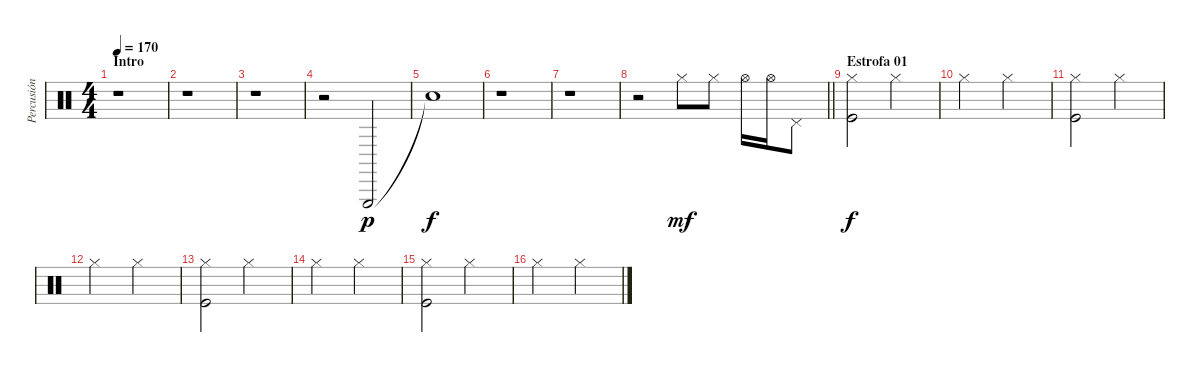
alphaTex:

\track ("Percusión" "Percusión") {instrument percussion}
\staff {score}
\articulation defaults
\ts (4 4)
\section ("" "Intro")
\tempo 170
\clef neutral
\ks c
r.1{dy p} |
r.1 |
r.1 |
r.2 "Triangle (hit)".2 |
"Snare (hit)"{t}.1{dy f} |
r.1 |
r.1 |
\barLineRight lightlight
r.2 "Hi-Hat (closed)".8{dy mf} "Hi-Hat (closed)".8 "Hi-Hat (open)".16 "Hi-Hat (open)".16 "Pedal Hi-Hat (hit)".8 |
\section ("" "Estrofa 01")
("Hi-Hat (closed)" "Kick (hit)").2{dy f} "Hi-Hat (closed)".2 |
"Hi-Hat (closed)".2 "Hi-Hat (closed)".2 |
("Hi-Hat (closed)" "Kick (hit)").2 "Hi-Hat (closed)".2 |
"Hi-Hat (closed)".2 "Hi-Hat (closed)".2 |
("Hi-Hat (closed)" "Kick (hit)").2 "Hi-Hat (closed)".2 |
"Hi-Hat (closed)".2 "Hi-Hat (closed)".2 |
("Hi-Hat (closed)" "Kick (hit)").2 "Hi-Hat (closed)".2 |
"Hi-Hat (closed)".2 "Hi-Hat (closed)".2
